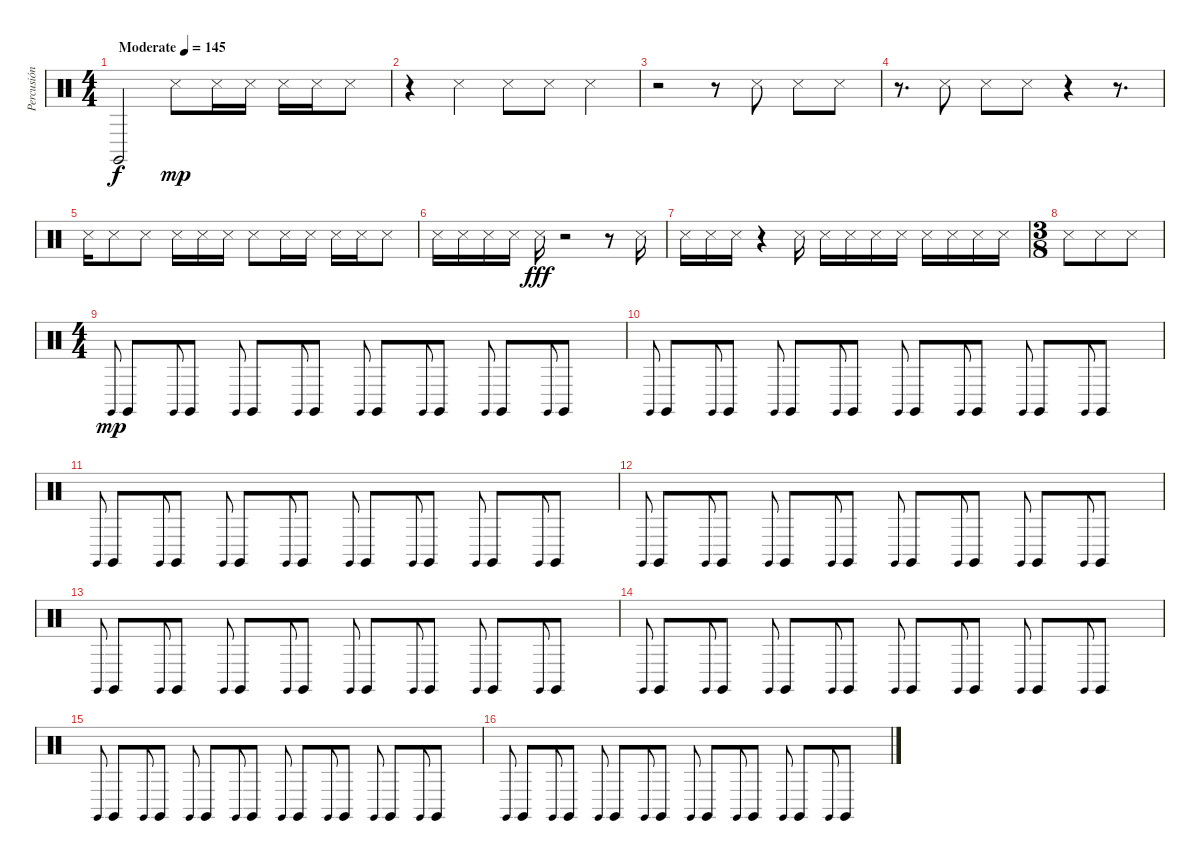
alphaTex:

\track ("Percusión" "Percusión") {instrument percussion}
\staff {score}
\articulation defaults
\ts (4 4)
\tempo (145 "Moderate")
\clef neutral
\ks c "Claves (hit)".2{dy f} "Snare (side stick) 3".8{dy mp} "Snare (side stick) 3".16 "Snare (side stick) 3".16 "Snare (side stick) 3".16 "Snare (side stick) 3".16 "Snare (side stick) 3".8
|
r.4 "Snare (side stick) 3".4 "Snare (side stick) 3".8 "Snare (side stick) 3".8 "Snare (side stick) 3".4 |
r.2 r.8 "Snare (side stick) 3".8 "Snare (side stick) 3".8 "Snare (side stick) 3".8 |
r.8{d} "Snare (side stick) 3".8 "Snare (side stick) 3".8 "Snare (side stick) 3".8 r.4 r.8{d} |
"Snare (side stick) 3".16 "Snare (side stick) 3".8 "Snare (side stick) 3".8 "Snare (side stick) 3".16 "Snare (side stick) 3".16 "Snare (side stick) 3".16 "Snare (side stick) 3".8 "Snare (side stick) 3".16 "Snare (side stick) 3".16 "Snare (side stick) 3".16 "Snare (side stick) 3".16 "Snare (side stick) 3".8 |
"Snare (side stick) 3".16 "Snare (side stick) 3".16 "Snare (side stick) 3".16 "Snare (side stick) 3".16 "Snare (side stick) 3".16{dy fff} r.2 r.8 "Snare (side stick) 3".16 |
"Snare (side stick) 3".16 "Snare (side stick) 3".16 "Snare (side stick) 3".16 r.4 "Snare (side stick) 3".16 "Snare (side stick) 3".16 "Snare (side stick) 3".16 "Snare (side stick) 3".16 "Snare (side stick) 3".16 "Snare (side stick) 3".16 "Snare (side stick) 3".16 "Snare (side stick) 3".16 "Snare (side stick) 3".16 |
\ts (3 8)
"Snare (side stick) 3".8 "Snare (side stick) 3".8 "Snare (side stick) 3".8 |
\ts (4 4)
"Claves (hit)".8{gr onbeat dy mp} "Claves (hit)".8 "Claves (hit)".8{gr onbeat} "Claves (hit)".8 "Claves (hit)".8{gr onbeat} "Claves (hit)".8 "Claves (hit)".8{gr onbeat} "Claves (hit)".8 "Claves (hit)".8{gr onbeat} "Claves (hit)".8 "Claves (hit)".8{gr onbeat} "Claves (hit)".8 "Claves (hit)".8{gr onbeat} "Claves (hit)".8 "Claves (hit)".8{gr onbeat} "Claves (hit)".8 |
"Claves (hit)".8{gr onbeat} "Claves (hit)".8 "Claves (hit)".8{gr onbeat} "Claves (hit)".8 "Claves (hit)".8{gr onbeat} "Claves (hit)".8 "Claves (hit)".8{gr onbeat} "Claves (hit)".8 "Claves (hit)".8{gr onbeat} "Claves (hit)".8 "Claves (hit)".8{gr onbeat} "Claves (hit)".8 "Claves (hit)".8{gr onbeat} "Claves (hit)".8 "Claves (hit)".8{gr onbeat} "Claves (hit)".8 |
"Claves (hit)".8{gr onbeat} "Claves (hit)".8 "Claves (hit)".8{gr onbeat} "Claves (hit)".8 "Claves (hit)".8{gr onbeat} "Claves (hit)".8 "Claves (hit)".8{gr onbeat} "Claves (hit)".8 "Claves (hit)".8{gr onbeat} "Claves (hit)".8 "Claves (hit)".8{gr onbeat} "Claves (hit)".8 "Claves (hit)".8{gr onbeat} "Claves (hit)".8 "Claves (hit)".8{gr onbeat} "Claves (hit)".8 |
"Claves (hit)".8{gr onbeat} "Claves (hit)".8 "Claves (hit)".8{gr onbeat} "Claves (hit)".8 "Claves (hit)".8{gr onbeat} "Claves (hit)".8 "Claves (hit)".8{gr onbeat} "Claves (hit)".8 "Claves (hit)".8{gr onbeat} "Claves (hit)".8 "Claves (hit)".8{gr onbeat} "Claves (hit)".8 "Claves (hit)".8{gr onbeat} "Claves (hit)".8 "Claves (hit)".8{gr onbeat} "Claves (hit)".8 |
"Claves (hit)".8{gr onbeat} "Claves (hit)".8 "Claves (hit)".8{gr onbeat} "Claves (hit)".8 "Claves (hit)".8{gr onbeat} "Claves (hit)".8 "Claves (hit)".8{gr onbeat} "Claves (hit)".8 "Claves (hit)".8{gr onbeat} "Claves (hit)".8 "Claves (hit)".8{gr onbeat} "Claves (hit)".8 "Claves (hit)".8{gr onbeat} "Claves (hit)".8 "Claves (hit)".8{gr onbeat} "Claves (hit)".8 |
"Claves (hit)".8{gr onbeat} "Claves (hit)".8 "Claves (hit)".8{gr onbeat} "Claves (hit)".8 "Claves (hit)".8{gr onbeat} "Claves (hit)".8 "Claves (hit)".8{gr onbeat} "Claves (hit)".8 "Claves (hit)".8{gr onbeat} "Claves (hit)".8 "Claves (hit)".8{gr onbeat} "Claves (hit)".8 "Claves (hit)".8{gr onbeat} "Claves (hit)".8 "Claves (hit)".8{gr onbeat} "Claves (hit)".8 |
"Claves (hit)".8{gr onbeat} "Claves (hit)".8 "Claves (hit)".8{gr onbeat} "Claves (hit)".8 "Claves (hit)".8{gr onbeat} "Claves (hit)".8 "Claves (hit)".8{gr onbeat} "Claves (hit)".8 "Claves (hit)".8{gr onbeat} "Claves (hit)".8 "Claves (hit)".8{gr onbeat} "Claves (hit)".8 "Claves (hit)".8{gr onbeat} "Claves (hit)".8 "Claves (hit)".8{gr onbeat} "Claves (hit)".8 |
"Claves (hit)".8{gr onbeat} "Claves (hit)".8 "Claves (hit)".8{gr onbeat} "Claves (hit)".8 "Claves (hit)".8{gr onbeat} "Claves (hit)".8 "Claves (hit)".8{gr onbeat} "Claves (hit)".8 "Claves (hit)".8{gr onbeat} "Claves (hit)".8 "Claves (hit)".8{gr onbeat} "Claves (hit)".8 "Claves (hit)".8{gr onbeat} "Claves (hit)".8 "Claves (hit)".8{gr onbeat} "Claves (hit)".8
